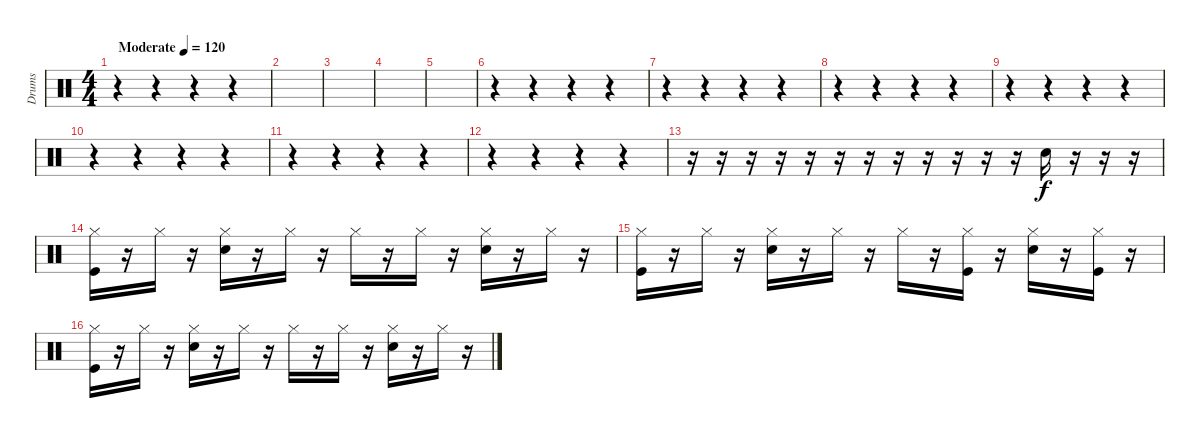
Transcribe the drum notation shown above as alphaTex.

\track ("Drums" "Drums") {instrument percussion}
\staff {score}
\articulation defaults
\ts (4 4)
\tempo (120 "Moderate")
\clef neutral
\ks c
r.4{dy f} r.4 r.4 r.4 |
|
|
|
|
r.4 r.4 r.4 r.4 |
r.4 r.4 r.4 r.4 |
r.4 r.4 r.4 r.4 |
r.4 r.4 r.4 r.4 |
r.4 r.4 r.4 r.4 |
r.4 r.4 r.4 r.4 |
r.4 r.4 r.4 r.4 |
r.16 r.16 r.16 r.16 r.16 r.16 r.16 r.16 r.16 r.16 r.16 r.16 "Electric Snare (hit)".16 r.16 r.16 r.16 |
("Kick (hit)" "Hi-Hat (closed)").16 r.16 "Hi-Hat (closed)".16 r.16 ("Electric Snare (hit)" "Hi-Hat (closed)").16 r.16 "Hi-Hat (closed)".16 r.16 "Hi-Hat (closed)".16 r.16 "Hi-Hat (closed)".16 r.16 ("Electric Snare (hit)" "Hi-Hat (closed)").16 r.16 "Hi-Hat (closed)".16 r.16 |
("Kick (hit)" "Hi-Hat (closed)").16 r.16 "Hi-Hat (closed)".16 r.16 ("Electric Snare (hit)" "Hi-Hat (closed)").16 r.16 "Hi-Hat (closed)".16 r.16 "Hi-Hat (closed)".16 r.16 ("Kick (hit)" "Hi-Hat (closed)").16 r.16 ("Electric Snare (hit)" "Hi-Hat (closed)").16 r.16 ("Kick (hit)" "Hi-Hat (closed)").16 r.16 |
("Kick (hit)" "Hi-Hat (closed)").16 r.16 "Hi-Hat (closed)".16 r.16 ("Electric Snare (hit)" "Hi-Hat (closed)").16 r.16 "Hi-Hat (closed)".16 r.16 "Hi-Hat (closed)".16 r.16 "Hi-Hat (closed)".16 r.16 ("Electric Snare (hit)" "Hi-Hat (closed)").16 r.16 "Hi-Hat (closed)".16 r.16
